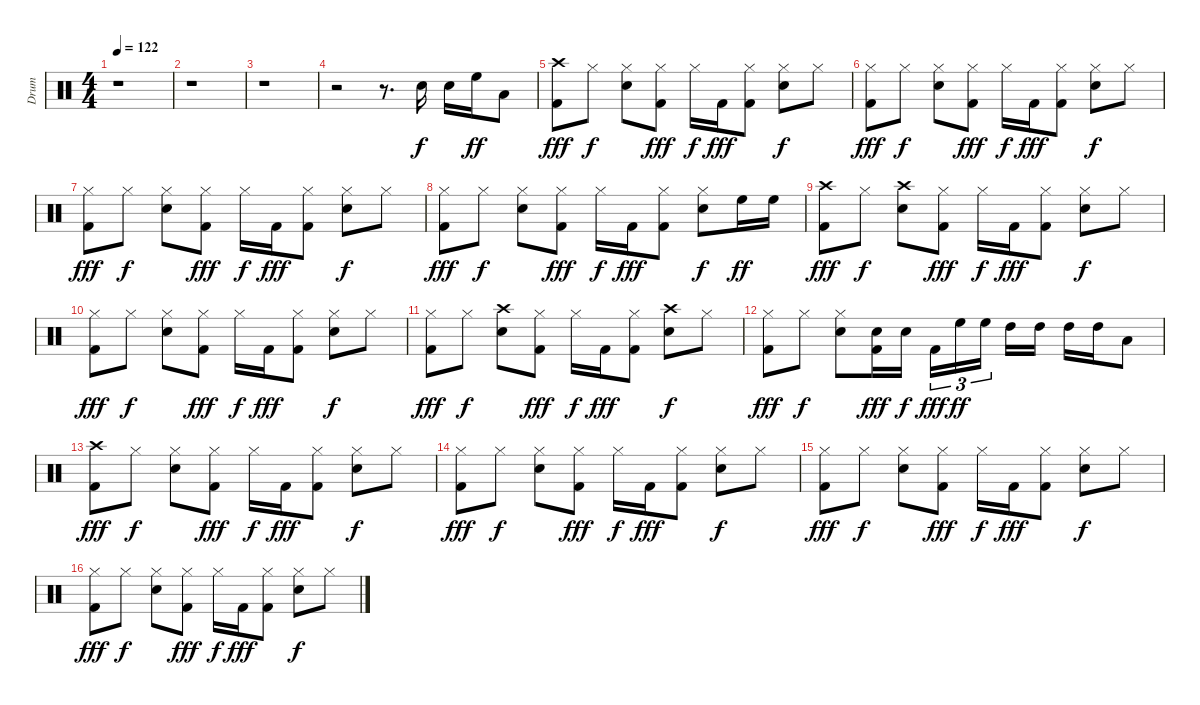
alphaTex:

\track ("Drum" "Drum") {instrument percussion}
\staff {score}
\articulation defaults
\ts (4 4)
\tempo 122
\clef neutral
\ks c
r.1{dy f} |
r.1 |
r.1 |
r.2 r.8{d} "Snare (hit) 2".16 "Snare (hit) 2".16 "High Floor Tom (hit)".16{dy ff} "Low Tom (hit)".8 |
("Crash high (hit)" "Kick (hit) 2").8{dy fff} "Hi-Hat (closed)".8{dy f} ("Hi-Hat (closed)" "Snare (hit) 2").8 ("Hi-Hat (closed)" "Kick (hit) 2").8{dy fff} "Hi-Hat (closed)".16{dy f} "Kick (hit) 2".16{dy fff} ("Hi-Hat (closed)" "Kick (hit) 2").8 ("Hi-Hat (closed)" "Snare (hit) 2").8{dy f} "Hi-Hat (closed)".8 |
("Hi-Hat (closed)" "Kick (hit) 2").8{dy fff} "Hi-Hat (closed)".8{dy f} ("Hi-Hat (closed)" "Snare (hit) 2").8 ("Hi-Hat (closed)" "Kick (hit) 2").8{dy fff} "Hi-Hat (closed)".16{dy f} "Kick (hit) 2".16{dy fff} ("Hi-Hat (closed)" "Kick (hit) 2").8 ("Hi-Hat (closed)" "Snare (hit) 2").8{dy f} "Hi-Hat (closed)".8 |
("Hi-Hat (closed)" "Kick (hit) 2").8{dy fff} "Hi-Hat (closed)".8{dy f} ("Hi-Hat (closed)" "Snare (hit) 2").8 ("Hi-Hat (closed)" "Kick (hit) 2").8{dy fff} "Hi-Hat (closed)".16{dy f} "Kick (hit) 2".16{dy fff} ("Hi-Hat (closed)" "Kick (hit) 2").8 ("Hi-Hat (closed)" "Snare (hit) 2").8{dy f} "Hi-Hat (closed)".8 |
("Hi-Hat (closed)" "Kick (hit) 2").8{dy fff} "Hi-Hat (closed)".8{dy f} ("Hi-Hat (closed)" "Snare (hit) 2").8 ("Hi-Hat (closed)" "Kick (hit) 2").8{dy fff} "Hi-Hat (closed)".16{dy f} "Kick (hit) 2".16{dy fff} ("Hi-Hat (closed)" "Kick (hit) 2").8 ("Hi-Hat (closed)" "Snare (hit) 2").8{dy f} "High Floor Tom (hit)".16{dy ff} "High Floor Tom (hit)".16 |
("Crash high (hit)" "Kick (hit) 2").8{dy fff} "Hi-Hat (closed)".8{dy f} ("Crash high (hit)" "Snare (hit) 2").8 ("Hi-Hat (closed)" "Kick (hit) 2").8{dy fff} "Hi-Hat (closed)".16{dy f} "Kick (hit) 2".16{dy fff} ("Hi-Hat (closed)" "Kick (hit) 2").8 ("Hi-Hat (closed)" "Snare (hit) 2").8{dy f} "Hi-Hat (closed)".8 |
("Hi-Hat (closed)" "Kick (hit) 2").8{dy fff} "Hi-Hat (closed)".8{dy f} ("Hi-Hat (closed)" "Snare (hit) 2").8 ("Hi-Hat (closed)" "Kick (hit) 2").8{dy fff} "Hi-Hat (closed)".16{dy f} "Kick (hit) 2".16{dy fff} ("Hi-Hat (closed)" "Kick (hit) 2").8 ("Hi-Hat (closed)" "Snare (hit) 2").8{dy f} "Hi-Hat (closed)".8 |
("Hi-Hat (closed)" "Kick (hit) 2").8{dy fff} "Hi-Hat (closed)".8{dy f} ("Crash high (hit)" "Snare (hit) 2").8 ("Hi-Hat (closed)" "Kick (hit) 2").8{dy fff} "Hi-Hat (closed)".16{dy f} "Kick (hit) 2".16{dy fff} ("Hi-Hat (closed)" "Kick (hit) 2").8 ("Crash high (hit)" "Snare (hit) 2").8{dy f} "Hi-Hat (closed)".8 |
("Hi-Hat (closed)" "Kick (hit) 2").8{dy fff} "Hi-Hat (closed)".8{dy f} ("Hi-Hat (closed)" "Snare (hit) 2").8 ("Snare (hit) 2" "Kick (hit) 2").16{dy fff} "Snare (hit) 2".16{dy f} "Kick (hit) 2".16{tu (3 2) dy fff} "High Floor Tom (hit)".16{tu (3 2) dy ff} "High Floor Tom (hit)".16{tu (3 2)} "High Tom (hit)".16 "High Tom (hit)".16 "High Tom (hit)".16 "High Tom (hit)".16 "Low Tom (hit)".8 |
("Crash high (hit)" "Kick (hit) 2").8{dy fff} "Hi-Hat (closed)".8{dy f} ("Hi-Hat (closed)" "Snare (hit) 2").8 ("Hi-Hat (closed)" "Kick (hit) 2").8{dy fff} "Hi-Hat (closed)".16{dy f} "Kick (hit) 2".16{dy fff} ("Hi-Hat (closed)" "Kick (hit) 2").8 ("Hi-Hat (closed)" "Snare (hit) 2").8{dy f} "Hi-Hat (closed)".8 |
("Hi-Hat (closed)" "Kick (hit) 2").8{dy fff} "Hi-Hat (closed)".8{dy f} ("Hi-Hat (closed)" "Snare (hit) 2").8 ("Hi-Hat (closed)" "Kick (hit) 2").8{dy fff} "Hi-Hat (closed)".16{dy f} "Kick (hit) 2".16{dy fff} ("Hi-Hat (closed)" "Kick (hit) 2").8 ("Hi-Hat (closed)" "Snare (hit) 2").8{dy f} "Hi-Hat (closed)".8 |
("Hi-Hat (closed)" "Kick (hit) 2").8{dy fff} "Hi-Hat (closed)".8{dy f} ("Hi-Hat (closed)" "Snare (hit) 2").8 ("Hi-Hat (closed)" "Kick (hit) 2").8{dy fff} "Hi-Hat (closed)".16{dy f} "Kick (hit) 2".16{dy fff} ("Hi-Hat (closed)" "Kick (hit) 2").8 ("Hi-Hat (closed)" "Snare (hit) 2").8{dy f} "Hi-Hat (closed)".8 |
("Hi-Hat (closed)" "Kick (hit) 2").8{dy fff} "Hi-Hat (closed)".8{dy f} ("Hi-Hat (closed)" "Snare (hit) 2").8 ("Hi-Hat (closed)" "Kick (hit) 2").8{dy fff} "Hi-Hat (closed)".16{dy f} "Kick (hit) 2".16{dy fff} ("Hi-Hat (closed)" "Kick (hit) 2").8 ("Hi-Hat (closed)" "Snare (hit) 2").8{dy f} "Hi-Hat (closed)".8
